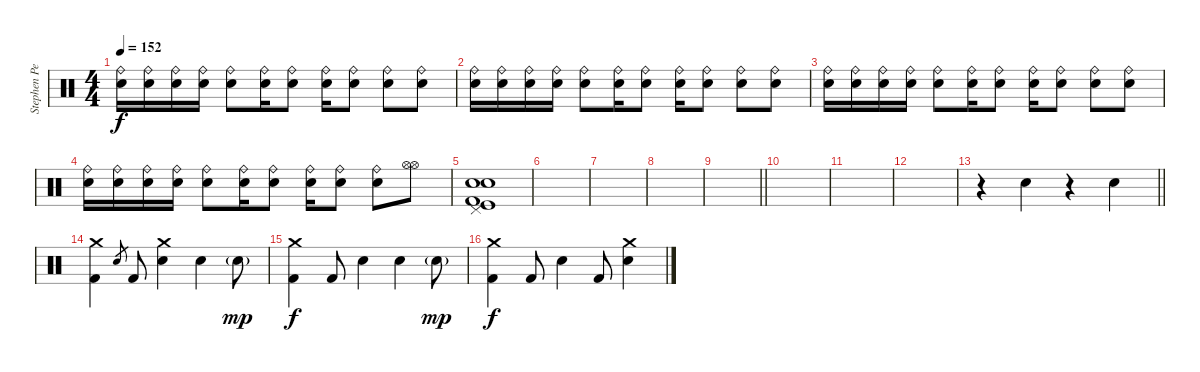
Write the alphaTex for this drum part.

\track ("Stephen Perkins (Drums)" "Stephen Pe") {instrument percussion}
\staff {score}
\articulation defaults
\ts (4 4)
\tempo 152
\clef neutral
\ks c
("Metronome (bell)" "Ride (bell)").16{dy f volume 14} ("Metronome (bell)" "Ride (bell)").16 ("Metronome (bell)" "Ride (bell)").16 ("Metronome (bell)" "Ride (bell)").16 ("Metronome (bell)" "Ride (bell)").8 ("Metronome (bell)" "Ride (bell)").16 ("Metronome (bell)" "Ride (bell)").8 ("Metronome (bell)" "Ride (bell)").16 ("Metronome (bell)" "Ride (bell)").8 ("Metronome (bell)" "Ride (bell)").8 ("Metronome (bell)" "Ride (bell)").8 |
("Metronome (bell)" "Ride (bell)").16 ("Metronome (bell)" "Ride (bell)").16 ("Metronome (bell)" "Ride (bell)").16 ("Metronome (bell)" "Ride (bell)").16 ("Metronome (bell)" "Ride (bell)").8 ("Metronome (bell)" "Ride (bell)").16 ("Metronome (bell)" "Ride (bell)").8 ("Metronome (bell)" "Ride (bell)").16 ("Metronome (bell)" "Ride (bell)").8 ("Metronome (bell)" "Ride (bell)").8 ("Metronome (bell)" "Ride (bell)").8 |
("Metronome (bell)" "Ride (bell)").16 ("Metronome (bell)" "Ride (bell)").16 ("Metronome (bell)" "Ride (bell)").16 ("Metronome (bell)" "Ride (bell)").16 ("Metronome (bell)" "Ride (bell)").8 ("Metronome (bell)" "Ride (bell)").16 ("Metronome (bell)" "Ride (bell)").8 ("Metronome (bell)" "Ride (bell)").16 ("Metronome (bell)" "Ride (bell)").8 ("Metronome (bell)" "Ride (bell)").8 ("Metronome (bell)" "Ride (bell)").8 |
("Metronome (bell)" "Ride (bell)").16 ("Metronome (bell)" "Ride (bell)").16 ("Metronome (bell)" "Ride (bell)").16 ("Metronome (bell)" "Ride (bell)").16 ("Metronome (bell)" "Ride (bell)").8 ("Metronome (bell)" "Ride (bell)").16 ("Metronome (bell)" "Ride (bell)").8 ("Metronome (bell)" "Ride (bell)").16 ("Metronome (bell)" "Ride (bell)").8 ("Metronome (bell)" "Ride (bell)").8 ("Hi-Hat (open)" "Hi-Hat (open)").8 |
("Electric Snare (hit)" "Snare (hit) 2" "Pedal Hi-Hat (hit)" "Kick (hit) 2" "Kick (hit)").1 |
|
|
|
\barLineRight lightlight
|
|
|
|
\barLineRight lightlight
r.4 "Electric Snare (hit)".4 r.4 "Electric Snare (hit)".4 |
("Crash medium (hit)" "Kick (hit) 2").4 "Electric Snare (hit)".8{gr} "Kick (hit) 2".8 ("Crash medium (hit)" "Electric Snare (hit)").4 "Electric Snare (hit)".4 "Electric Snare (hit)"{g}.8{dy mp} |
("Crash medium (hit)" "Kick (hit) 2").4{dy f} "Kick (hit) 2".8 "Electric Snare (hit)".4 "Electric Snare (hit)".4 "Electric Snare (hit)"{g}.8{dy mp} |
("Crash medium (hit)" "Kick (hit) 2").4{dy f} "Kick (hit) 2".8 "Electric Snare (hit)".4 "Kick (hit) 2".8 ("Crash medium (hit)" "Electric Snare (hit)").4
